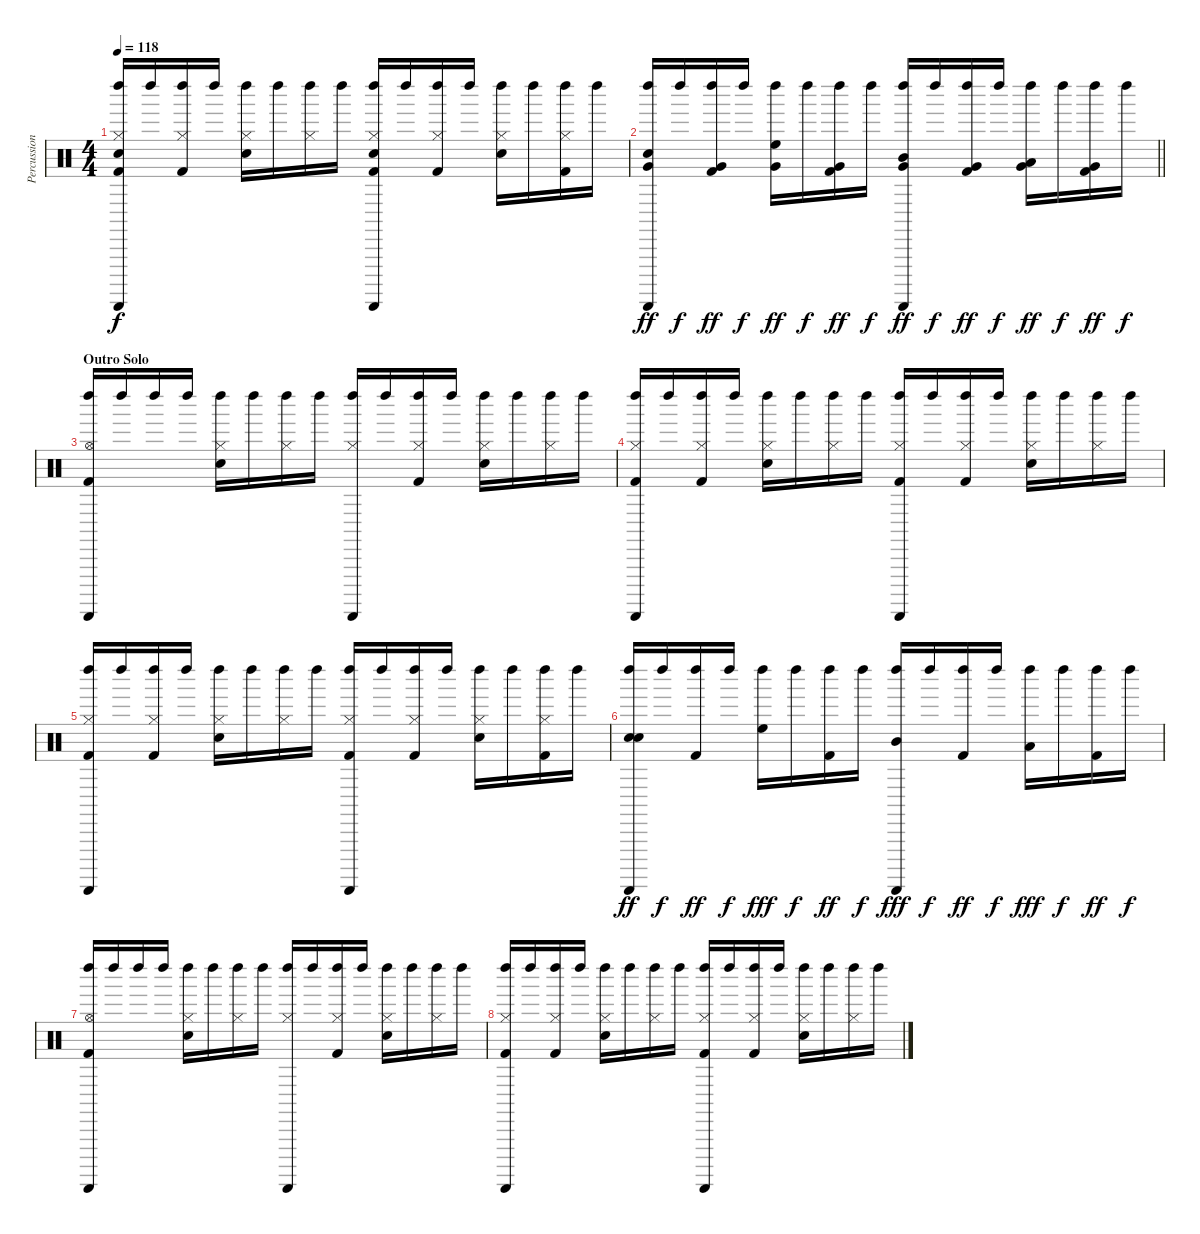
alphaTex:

\track ("Percussions" "Percussion") {instrument percussion}
\staff {score}
\articulation defaults
\ts (4 4)
\tempo 118
\clef neutral
\ks c
("Guiro (scrap-return)" "Left Maraca (hit)" "Hi-Hat (closed)" "Snare (hit) 2" "Kick (hit) 2").16{dy f} "Left Maraca (hit)".16 ("Left Maraca (hit)" "Hi-Hat (closed)" "Kick (hit) 2").16 "Left Maraca (hit)".16 ("Left Maraca (hit)" "Hi-Hat (closed)" "Snare (hit) 2").16 "Left Maraca (hit)".16 ("Left Maraca (hit)" "Hi-Hat (closed)").16 "Left Maraca (hit)".16 ("Guiro (scrap-return)" "Left Maraca (hit)" "Hi-Hat (closed)" "Snare (hit) 2" "Kick (hit) 2").16 "Left Maraca (hit)".16 ("Left Maraca (hit)" "Hi-Hat (closed)" "Kick (hit) 2").16 "Left Maraca (hit)".16 ("Left Maraca (hit)" "Hi-Hat (closed)" "Snare (hit) 2").16 "Left Maraca (hit)".16 ("Left Maraca (hit)" "Hi-Hat (closed)" "Kick (hit) 2").16 "Left Maraca (hit)".16 |
\barLineRight lightlight
("Guiro (scrap-return)" "Left Maraca (hit)" "Snare (hit) 2" "Very Low Tom (hit)").16{dy ff} "Left Maraca (hit)".16{dy f} ("Left Maraca (hit)" "Very Low Tom (hit)" "Kick (hit) 2").16{dy ff} "Left Maraca (hit)".16{dy f} ("Left Maraca (hit)" "High Floor Tom (hit)" "Very Low Tom (hit)").16{dy ff} "Left Maraca (hit)".16{dy f} ("Left Maraca (hit)" "Very Low Tom (hit)" "Kick (hit) 2").16{dy ff} "Left Maraca (hit)".16{dy f} ("Guiro (scrap-return)" "Left Maraca (hit)" "Mid Tom (hit)" "Very Low Tom (hit)").16{dy ff} "Left Maraca (hit)".16{dy f} ("Left Maraca (hit)" "Very Low Tom (hit)" "Kick (hit) 2").16{dy ff} "Left Maraca (hit)".16{dy f} ("Left Maraca (hit)" "Low Tom (hit)" "Very Low Tom (hit)").16{dy ff} "Left Maraca (hit)".16{dy f} ("Left Maraca (hit)" "Very Low Tom (hit)" "Kick (hit) 2").16{dy ff} "Left Maraca (hit)".16{dy f} |
\section ("" "Outro Solo")
("Guiro (scrap-return)" "Left Maraca (hit)" "Hi-Hat (open)" "Kick (hit) 2").16 "Left Maraca (hit)".16 "Left Maraca (hit)".16 "Left Maraca (hit)".16 ("Left Maraca (hit)" "Hi-Hat (closed)" "Snare (hit) 2").16 "Left Maraca (hit)".16 ("Left Maraca (hit)" "Hi-Hat (closed)").16 "Left Maraca (hit)".16 ("Guiro (scrap-return)" "Left Maraca (hit)" "Hi-Hat (closed)").16 "Left Maraca (hit)".16 ("Left Maraca (hit)" "Hi-Hat (closed)" "Kick (hit) 2").16 "Left Maraca (hit)".16 ("Left Maraca (hit)" "Hi-Hat (closed)" "Snare (hit) 2").16 "Left Maraca (hit)".16 ("Left Maraca (hit)" "Hi-Hat (closed)").16 "Left Maraca (hit)".16 |
("Guiro (scrap-return)" "Left Maraca (hit)" "Hi-Hat (closed)" "Kick (hit) 2").16 "Left Maraca (hit)".16 ("Left Maraca (hit)" "Hi-Hat (closed)" "Kick (hit) 2").16 "Left Maraca (hit)".16 ("Left Maraca (hit)" "Hi-Hat (closed)" "Snare (hit) 2").16 "Left Maraca (hit)".16 ("Left Maraca (hit)" "Hi-Hat (closed)").16 "Left Maraca (hit)".16 ("Guiro (scrap-return)" "Left Maraca (hit)" "Hi-Hat (closed)" "Kick (hit) 2").16 "Left Maraca (hit)".16 ("Left Maraca (hit)" "Hi-Hat (closed)" "Kick (hit) 2").16 "Left Maraca (hit)".16 ("Left Maraca (hit)" "Hi-Hat (closed)" "Snare (hit) 2").16 "Left Maraca (hit)".16 ("Left Maraca (hit)" "Hi-Hat (closed)").16 "Left Maraca (hit)".16 |
("Guiro (scrap-return)" "Left Maraca (hit)" "Hi-Hat (closed)" "Kick (hit) 2").16 "Left Maraca (hit)".16 ("Left Maraca (hit)" "Hi-Hat (closed)" "Kick (hit) 2").16 "Left Maraca (hit)".16 ("Left Maraca (hit)" "Hi-Hat (closed)" "Snare (hit) 2").16 "Left Maraca (hit)".16 ("Left Maraca (hit)" "Hi-Hat (closed)").16 "Left Maraca (hit)".16 ("Guiro (scrap-return)" "Left Maraca (hit)" "Hi-Hat (closed)" "Kick (hit) 2").16 "Left Maraca (hit)".16 ("Left Maraca (hit)" "Hi-Hat (closed)" "Kick (hit) 2").16 "Left Maraca (hit)".16 ("Left Maraca (hit)" "Hi-Hat (closed)" "Snare (hit) 2").16 "Left Maraca (hit)".16 ("Left Maraca (hit)" "Hi-Hat (closed)" "Kick (hit) 2").16 "Left Maraca (hit)".16 |
("Guiro (scrap-return)" "Left Maraca (hit)" "Snare (hit) 2" "Snare (hit) 2").16{dy ff} "Left Maraca (hit)".16{dy f} ("Left Maraca (hit)" "Kick (hit) 2").16{dy ff} "Left Maraca (hit)".16{dy f} ("Left Maraca (hit)" "High Floor Tom (hit)").16{dy fff} "Left Maraca (hit)".16{dy f} ("Left Maraca (hit)" "Kick (hit) 2").16{dy ff} "Left Maraca (hit)".16{dy f} ("Guiro (scrap-return)" "Left Maraca (hit)" "Mid Tom (hit)").16{dy fff} "Left Maraca (hit)".16{dy f} ("Left Maraca (hit)" "Kick (hit) 2").16{dy ff} "Left Maraca (hit)".16{dy f} ("Left Maraca (hit)" "Low Tom (hit)").16{dy fff} "Left Maraca (hit)".16{dy f} ("Left Maraca (hit)" "Kick (hit) 2").16{dy ff} "Left Maraca (hit)".16{dy f} |
("Guiro (scrap-return)" "Left Maraca (hit)" "Hi-Hat (open)" "Kick (hit) 2").16 "Left Maraca (hit)".16 "Left Maraca (hit)".16 "Left Maraca (hit)".16 ("Left Maraca (hit)" "Hi-Hat (closed)" "Snare (hit) 2").16 "Left Maraca (hit)".16 ("Left Maraca (hit)" "Hi-Hat (closed)").16 "Left Maraca (hit)".16 ("Guiro (scrap-return)" "Left Maraca (hit)" "Hi-Hat (closed)").16 "Left Maraca (hit)".16 ("Left Maraca (hit)" "Hi-Hat (closed)" "Kick (hit) 2").16 "Left Maraca (hit)".16 ("Left Maraca (hit)" "Hi-Hat (closed)" "Snare (hit) 2").16 "Left Maraca (hit)".16 ("Left Maraca (hit)" "Hi-Hat (closed)").16 "Left Maraca (hit)".16 |
("Guiro (scrap-return)" "Left Maraca (hit)" "Hi-Hat (closed)" "Kick (hit) 2").16 "Left Maraca (hit)".16 ("Left Maraca (hit)" "Hi-Hat (closed)" "Kick (hit) 2").16 "Left Maraca (hit)".16 ("Left Maraca (hit)" "Hi-Hat (closed)" "Snare (hit) 2").16 "Left Maraca (hit)".16 ("Left Maraca (hit)" "Hi-Hat (closed)").16 "Left Maraca (hit)".16 ("Guiro (scrap-return)" "Left Maraca (hit)" "Hi-Hat (closed)" "Kick (hit) 2").16 "Left Maraca (hit)".16 ("Left Maraca (hit)" "Hi-Hat (closed)" "Kick (hit) 2").16 "Left Maraca (hit)".16 ("Left Maraca (hit)" "Hi-Hat (closed)" "Snare (hit) 2").16 "Left Maraca (hit)".16 ("Left Maraca (hit)" "Hi-Hat (closed)").16 "Left Maraca (hit)".16
